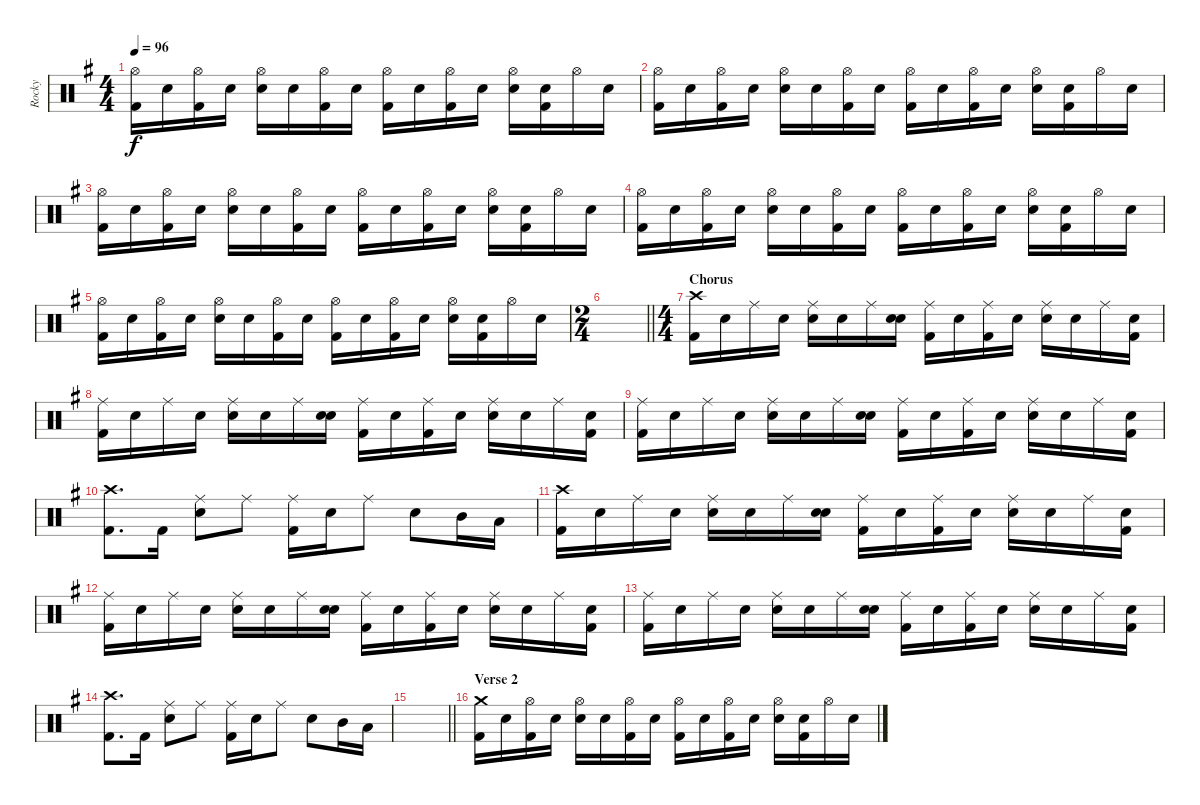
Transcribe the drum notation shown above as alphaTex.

\track ("Rocky" "Rocky") {instrument percussion}
\staff {score}
\articulation defaults
\ts (4 4)
\tempo 96
\clef neutral
\ks g
("Hi-Hat (open)" "Kick (hit) 2").16{dy f} "Snare (hit)".16 ("Hi-Hat (open)" "Kick (hit) 2").16 "Snare (hit)".16 ("Hi-Hat (open)" "Snare (hit) 2").16 "Snare (hit)".16 ("Hi-Hat (open)" "Kick (hit) 2").16 "Snare (hit)".16 ("Hi-Hat (open)" "Kick (hit) 2").16 "Snare (hit)".16 ("Hi-Hat (open)" "Kick (hit) 2").16 "Snare (hit)".16 ("Hi-Hat (open)" "Snare (hit) 2").16 ("Snare (hit)" "Kick (hit) 2").16 "Hi-Hat (open)".16 "Snare (hit)".16 |
("Hi-Hat (open)" "Kick (hit) 2").16 "Snare (hit)".16 ("Hi-Hat (open)" "Kick (hit) 2").16 "Snare (hit)".16 ("Hi-Hat (open)" "Snare (hit) 2").16 "Snare (hit)".16 ("Hi-Hat (open)" "Kick (hit) 2").16 "Snare (hit)".16 ("Hi-Hat (open)" "Kick (hit) 2").16 "Snare (hit)".16 ("Hi-Hat (open)" "Kick (hit) 2").16 "Snare (hit)".16 ("Hi-Hat (open)" "Snare (hit) 2").16 ("Snare (hit)" "Kick (hit) 2").16 "Hi-Hat (open)".16 "Snare (hit)".16 |
("Hi-Hat (open)" "Kick (hit) 2").16 "Snare (hit)".16 ("Hi-Hat (open)" "Kick (hit) 2").16 "Snare (hit)".16 ("Hi-Hat (open)" "Snare (hit) 2").16 "Snare (hit)".16 ("Hi-Hat (open)" "Kick (hit) 2").16 "Snare (hit)".16 ("Hi-Hat (open)" "Kick (hit) 2").16 "Snare (hit)".16 ("Hi-Hat (open)" "Kick (hit) 2").16 "Snare (hit)".16 ("Hi-Hat (open)" "Snare (hit) 2").16 ("Snare (hit)" "Kick (hit) 2").16 "Hi-Hat (open)".16 "Snare (hit)".16 |
("Hi-Hat (open)" "Kick (hit) 2").16 "Snare (hit)".16 ("Hi-Hat (open)" "Kick (hit) 2").16 "Snare (hit)".16 ("Hi-Hat (open)" "Snare (hit) 2").16 "Snare (hit)".16 ("Hi-Hat (open)" "Kick (hit) 2").16 "Snare (hit)".16 ("Hi-Hat (open)" "Kick (hit) 2").16 "Snare (hit)".16 ("Hi-Hat (open)" "Kick (hit) 2").16 "Snare (hit)".16 ("Hi-Hat (open)" "Snare (hit) 2").16 ("Snare (hit)" "Kick (hit) 2").16 "Hi-Hat (open)".16 "Snare (hit)".16 |
("Hi-Hat (open)" "Kick (hit) 2").16 "Snare (hit)".16 ("Hi-Hat (open)" "Kick (hit) 2").16 "Snare (hit)".16 ("Hi-Hat (open)" "Snare (hit) 2").16 "Snare (hit)".16 ("Hi-Hat (open)" "Kick (hit) 2").16 "Snare (hit)".16 ("Hi-Hat (open)" "Kick (hit) 2").16 "Snare (hit)".16 ("Hi-Hat (open)" "Kick (hit) 2").16 "Snare (hit)".16 ("Hi-Hat (open)" "Snare (hit) 2").16 ("Snare (hit)" "Kick (hit) 2").16 "Hi-Hat (open)".16 "Snare (hit)".16 |
\ts (2 4)
\barLineRight lightlight
|
\ts (4 4)
\section ("" "Chorus")
("Crash high (hit)" "Kick (hit) 2").16 "Snare (hit)".16 "Ride (middle)".16 "Snare (hit)".16 ("Ride (middle)" "Snare (hit) 2").16 "Snare (hit)".16 "Ride (middle)".16 ("Snare (hit)" "Snare (hit) 2").16 ("Ride (middle)" "Kick (hit) 2").16 "Snare (hit)".16 ("Ride (middle)" "Kick (hit) 2").16 "Snare (hit)".16 ("Ride (middle)" "Snare (hit) 2").16 "Snare (hit)".16 "Ride (middle)".16 ("Snare (hit)" "Kick (hit) 2").16 |
("Ride (middle)" "Kick (hit) 2").16 "Snare (hit)".16 "Ride (middle)".16 "Snare (hit)".16 ("Ride (middle)" "Snare (hit) 2").16 "Snare (hit)".16 "Ride (middle)".16 ("Snare (hit)" "Snare (hit) 2").16 ("Ride (middle)" "Kick (hit) 2").16 "Snare (hit)".16 ("Ride (middle)" "Kick (hit) 2").16 "Snare (hit)".16 ("Ride (middle)" "Snare (hit) 2").16 "Snare (hit)".16 "Ride (middle)".16 ("Snare (hit)" "Kick (hit) 2").16 |
("Ride (middle)" "Kick (hit) 2").16 "Snare (hit)".16 "Ride (middle)".16 "Snare (hit)".16 ("Ride (middle)" "Snare (hit) 2").16 "Snare (hit)".16 "Ride (middle)".16 ("Snare (hit)" "Snare (hit) 2").16 ("Ride (middle)" "Kick (hit) 2").16 "Snare (hit)".16 ("Ride (middle)" "Kick (hit) 2").16 "Snare (hit)".16 ("Ride (middle)" "Snare (hit) 2").16 "Snare (hit)".16 "Ride (middle)".16 ("Snare (hit)" "Kick (hit) 2").16 |
("Crash high (hit)" "Kick (hit) 2").8{d} "Kick (hit) 2".16 ("Ride (middle)" "Snare (hit) 2").8 "Ride (middle)".8 ("Ride (middle)" "Kick (hit) 2").16 "Snare (hit) 2".16 "Ride (middle)".8 "Snare (hit) 2".8 "Mid Tom (hit)".16 "Low Tom (hit)".16 |
("Crash high (hit)" "Kick (hit) 2").16 "Snare (hit)".16 "Ride (middle)".16 "Snare (hit)".16 ("Ride (middle)" "Snare (hit) 2").16 "Snare (hit)".16 "Ride (middle)".16 ("Snare (hit)" "Snare (hit) 2").16 ("Ride (middle)" "Kick (hit) 2").16 "Snare (hit)".16 ("Ride (middle)" "Kick (hit) 2").16 "Snare (hit)".16 ("Ride (middle)" "Snare (hit) 2").16 "Snare (hit)".16 "Ride (middle)".16 ("Snare (hit)" "Kick (hit) 2").16 |
("Ride (middle)" "Kick (hit) 2").16 "Snare (hit)".16 "Ride (middle)".16 "Snare (hit)".16 ("Ride (middle)" "Snare (hit) 2").16 "Snare (hit)".16 "Ride (middle)".16 ("Snare (hit)" "Snare (hit) 2").16 ("Ride (middle)" "Kick (hit) 2").16 "Snare (hit)".16 ("Ride (middle)" "Kick (hit) 2").16 "Snare (hit)".16 ("Ride (middle)" "Snare (hit) 2").16 "Snare (hit)".16 "Ride (middle)".16 ("Snare (hit)" "Kick (hit) 2").16 |
("Ride (middle)" "Kick (hit) 2").16 "Snare (hit)".16 "Ride (middle)".16 "Snare (hit)".16 ("Ride (middle)" "Snare (hit) 2").16 "Snare (hit)".16 "Ride (middle)".16 ("Snare (hit)" "Snare (hit) 2").16 ("Ride (middle)" "Kick (hit) 2").16 "Snare (hit)".16 ("Ride (middle)" "Kick (hit) 2").16 "Snare (hit)".16 ("Ride (middle)" "Snare (hit) 2").16 "Snare (hit)".16 "Ride (middle)".16 ("Snare (hit)" "Kick (hit) 2").16 |
("Crash high (hit)" "Kick (hit) 2").8{d} "Kick (hit) 2".16 ("Ride (middle)" "Snare (hit) 2").8 "Ride (middle)".8 ("Ride (middle)" "Kick (hit) 2").16 "Snare (hit) 2".16 "Ride (middle)".8 "Snare (hit) 2".8 "Mid Tom (hit)".16 "Low Tom (hit)".16 |
\barLineRight lightlight
|
\section ("" "Verse 2")
("Crash medium (hit)" "Kick (hit) 2").16 "Snare (hit)".16 ("Hi-Hat (open)" "Kick (hit) 2").16 "Snare (hit)".16 ("Hi-Hat (open)" "Snare (hit) 2").16 "Snare (hit)".16 ("Hi-Hat (open)" "Kick (hit) 2").16 "Snare (hit)".16 ("Hi-Hat (open)" "Kick (hit) 2").16 "Snare (hit)".16 ("Hi-Hat (open)" "Kick (hit) 2").16 "Snare (hit)".16 ("Hi-Hat (open)" "Snare (hit) 2").16 ("Snare (hit)" "Kick (hit) 2").16 "Hi-Hat (open)".16 "Snare (hit)".16
